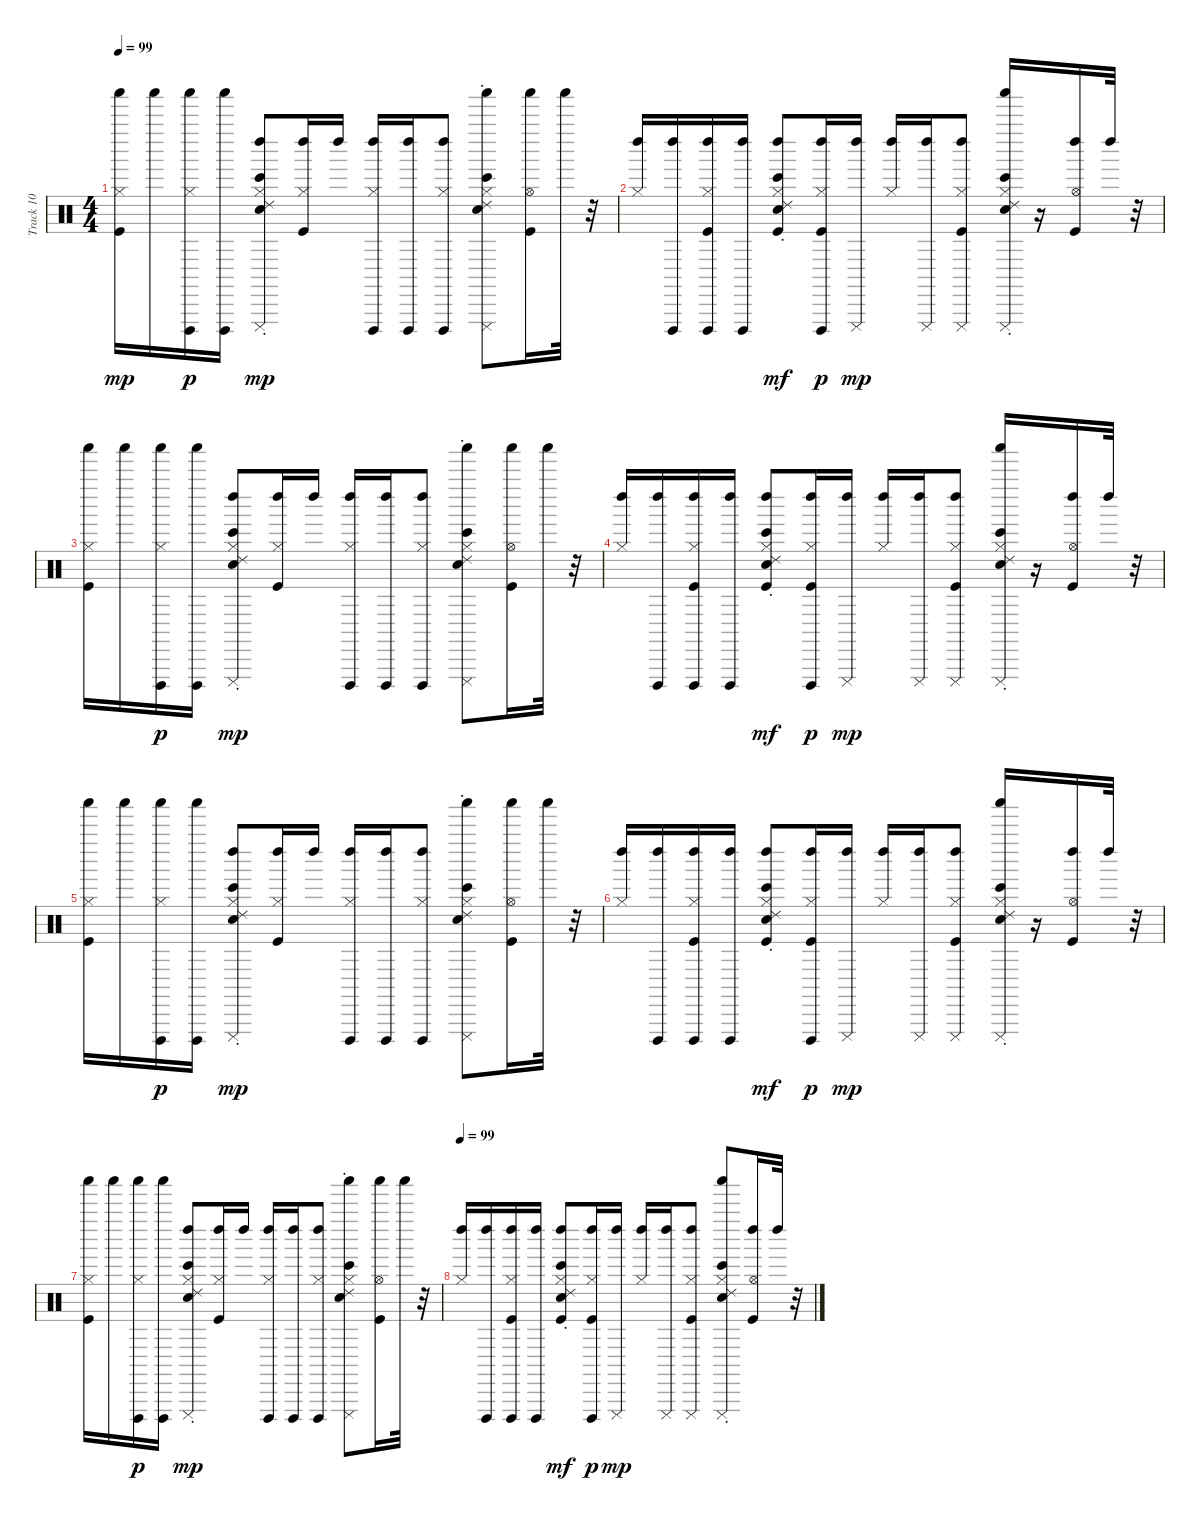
\track ("Track 10" "Track 10") {instrument percussion}
\staff {score}
\articulation defaults
\ts (4 4)
\tempo 99
\clef neutral
\ks c
("Kick (hit)" "Hi-Hat (closed)" "Shaker (hit)").16{dy mp} "Shaker (hit)".16 ("Hi-Hat (closed)" "Cuica (open)" "Shaker (hit)").16{dy p} ("Cuica (open)" "Shaker (hit)").16 ("Bongo High (hit)" "Ride (choke) 2" "Electric Snare (hit)" "Hi-Hat (closed)" "Left Maraca (hit)" "Cuica (mute)").8{dy mp} ("Kick (hit)" "Hi-Hat (closed)" "Left Maraca (hit)").16 "Left Maraca (hit)".16 ("Hi-Hat (closed)" "Left Maraca (hit)" "Cuica (open)").16 ("Cuica (open)" "Left Maraca (hit)").16 ("Hi-Hat (closed)" "Left Maraca (hit)" "Cuica (open)").8 ("Bongo High (hit)" "Ride (choke) 2" "Electric Snare (hit)" "Hi-Hat (closed)" "Cuica (mute)" "Shaker (hit)").8 ("Kick (hit)" "Hi-Hat (open)" "Shaker (hit)").16 "Shaker (hit)".32 r.32 |
("Hi-Hat (closed)" "Left Maraca (hit)").16 ("Cuica (open)" "Left Maraca (hit)").16 ("Kick (hit)" "Hi-Hat (closed)" "Left Maraca (hit)" "Cuica (open)").16 ("Cuica (open)" "Left Maraca (hit)").16 ("Bongo High (hit)" "Ride (choke) 2" "Kick (hit)" "Electric Snare (hit)" "Hi-Hat (closed)" "Left Maraca (hit)").8{dy mf} ("Kick (hit)" "Hi-Hat (closed)" "Left Maraca (hit)" "Cuica (open)").16{dy p} ("Cuica (mute)" "Left Maraca (hit)").16{dy mp} ("Hi-Hat (closed)" "Left Maraca (hit)").16 ("Cuica (mute)" "Left Maraca (hit)").16 ("Kick (hit)" "Hi-Hat (closed)" "Left Maraca (hit)" "Cuica (mute)").8 ("Bongo High (hit)" "Ride (choke) 2" "Electric Snare (hit)" "Hi-Hat (closed)" "Cuica (mute)" "Shaker (hit)").16 r.16 ("Kick (hit)" "Hi-Hat (open)" "Left Maraca (hit)").16 "Left Maraca (hit)".32 r.32 |
("Kick (hit)" "Hi-Hat (closed)" "Shaker (hit)").16 "Shaker (hit)".16 ("Hi-Hat (closed)" "Cuica (open)" "Shaker (hit)").16{dy p} ("Cuica (open)" "Shaker (hit)").16 ("Bongo High (hit)" "Ride (choke) 2" "Electric Snare (hit)" "Hi-Hat (closed)" "Left Maraca (hit)" "Cuica (mute)").8{dy mp} ("Kick (hit)" "Hi-Hat (closed)" "Left Maraca (hit)").16 "Left Maraca (hit)".16 ("Hi-Hat (closed)" "Left Maraca (hit)" "Cuica (open)").16 ("Cuica (open)" "Left Maraca (hit)").16 ("Hi-Hat (closed)" "Left Maraca (hit)" "Cuica (open)").8 ("Bongo High (hit)" "Ride (choke) 2" "Electric Snare (hit)" "Hi-Hat (closed)" "Cuica (mute)" "Shaker (hit)").8 ("Kick (hit)" "Hi-Hat (open)" "Shaker (hit)").16 "Shaker (hit)".32 r.32 |
("Hi-Hat (closed)" "Left Maraca (hit)").16 ("Cuica (open)" "Left Maraca (hit)").16 ("Kick (hit)" "Hi-Hat (closed)" "Left Maraca (hit)" "Cuica (open)").16 ("Cuica (open)" "Left Maraca (hit)").16 ("Bongo High (hit)" "Ride (choke) 2" "Kick (hit)" "Electric Snare (hit)" "Hi-Hat (closed)" "Left Maraca (hit)").8{dy mf} ("Kick (hit)" "Hi-Hat (closed)" "Left Maraca (hit)" "Cuica (open)").16{dy p} ("Cuica (mute)" "Left Maraca (hit)").16{dy mp} ("Hi-Hat (closed)" "Left Maraca (hit)").16 ("Cuica (mute)" "Left Maraca (hit)").16 ("Kick (hit)" "Hi-Hat (closed)" "Left Maraca (hit)" "Cuica (mute)").8 ("Bongo High (hit)" "Ride (choke) 2" "Electric Snare (hit)" "Hi-Hat (closed)" "Cuica (mute)" "Shaker (hit)").16 r.16 ("Kick (hit)" "Hi-Hat (open)" "Left Maraca (hit)").16 "Left Maraca (hit)".32 r.32 |
("Kick (hit)" "Hi-Hat (closed)" "Shaker (hit)").16 "Shaker (hit)".16 ("Hi-Hat (closed)" "Cuica (open)" "Shaker (hit)").16{dy p} ("Cuica (open)" "Shaker (hit)").16 ("Bongo High (hit)" "Ride (choke) 2" "Electric Snare (hit)" "Hi-Hat (closed)" "Left Maraca (hit)" "Cuica (mute)").8{dy mp} ("Kick (hit)" "Hi-Hat (closed)" "Left Maraca (hit)").16 "Left Maraca (hit)".16 ("Hi-Hat (closed)" "Left Maraca (hit)" "Cuica (open)").16 ("Cuica (open)" "Left Maraca (hit)").16 ("Hi-Hat (closed)" "Left Maraca (hit)" "Cuica (open)").8 ("Bongo High (hit)" "Ride (choke) 2" "Electric Snare (hit)" "Hi-Hat (closed)" "Cuica (mute)" "Shaker (hit)").8 ("Kick (hit)" "Hi-Hat (open)" "Shaker (hit)").16 "Shaker (hit)".32 r.32 |
("Hi-Hat (closed)" "Left Maraca (hit)").16 ("Cuica (open)" "Left Maraca (hit)").16 ("Kick (hit)" "Hi-Hat (closed)" "Left Maraca (hit)" "Cuica (open)").16 ("Cuica (open)" "Left Maraca (hit)").16 ("Bongo High (hit)" "Ride (choke) 2" "Kick (hit)" "Electric Snare (hit)" "Hi-Hat (closed)" "Left Maraca (hit)").8{dy mf} ("Kick (hit)" "Hi-Hat (closed)" "Left Maraca (hit)" "Cuica (open)").16{dy p} ("Cuica (mute)" "Left Maraca (hit)").16{dy mp} ("Hi-Hat (closed)" "Left Maraca (hit)").16 ("Cuica (mute)" "Left Maraca (hit)").16 ("Kick (hit)" "Hi-Hat (closed)" "Left Maraca (hit)" "Cuica (mute)").8 ("Bongo High (hit)" "Ride (choke) 2" "Electric Snare (hit)" "Hi-Hat (closed)" "Cuica (mute)" "Shaker (hit)").16 r.16 ("Kick (hit)" "Hi-Hat (open)" "Left Maraca (hit)").16 "Left Maraca (hit)".32 r.32 |
("Kick (hit)" "Hi-Hat (closed)" "Shaker (hit)").16 "Shaker (hit)".16 ("Hi-Hat (closed)" "Cuica (open)" "Shaker (hit)").16{dy p} ("Cuica (open)" "Shaker (hit)").16 ("Bongo High (hit)" "Ride (choke) 2" "Electric Snare (hit)" "Hi-Hat (closed)" "Left Maraca (hit)" "Cuica (mute)").8{dy mp} ("Kick (hit)" "Hi-Hat (closed)" "Left Maraca (hit)").16 "Left Maraca (hit)".16 ("Hi-Hat (closed)" "Left Maraca (hit)" "Cuica (open)").16 ("Cuica (open)" "Left Maraca (hit)").16 ("Hi-Hat (closed)" "Left Maraca (hit)" "Cuica (open)").8 ("Bongo High (hit)" "Ride (choke) 2" "Electric Snare (hit)" "Hi-Hat (closed)" "Cuica (mute)" "Shaker (hit)").8 ("Kick (hit)" "Hi-Hat (open)" "Shaker (hit)").16 "Shaker (hit)".32 r.32 |
\tempo 99
("Hi-Hat (closed)" "Left Maraca (hit)").16 ("Cuica (open)" "Left Maraca (hit)").16 ("Kick (hit)" "Hi-Hat (closed)" "Left Maraca (hit)" "Cuica (open)").16 ("Cuica (open)" "Left Maraca (hit)").16 ("Bongo High (hit)" "Ride (choke) 2" "Kick (hit)" "Electric Snare (hit)" "Hi-Hat (closed)" "Left Maraca (hit)").8{dy mf} ("Kick (hit)" "Hi-Hat (closed)" "Left Maraca (hit)" "Cuica (open)").16{dy p} ("Cuica (mute)" "Left Maraca (hit)").16{dy mp} ("Hi-Hat (closed)" "Left Maraca (hit)").16 ("Cuica (mute)" "Left Maraca (hit)").16 ("Kick (hit)" "Hi-Hat (closed)" "Left Maraca (hit)" "Cuica (mute)").8 ("Bongo High (hit)" "Ride (choke) 2" "Electric Snare (hit)" "Hi-Hat (closed)" "Cuica (mute)" "Shaker (hit)").8 ("Kick (hit)" "Hi-Hat (open)" "Left Maraca (hit)").16 "Left Maraca (hit)".32 r.32
